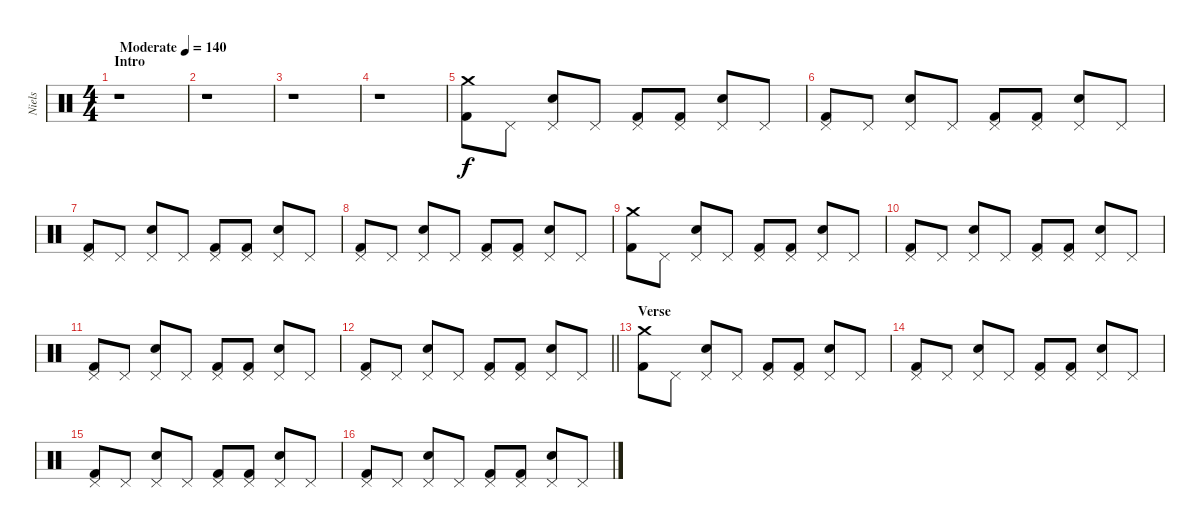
\track ("Niels" "Niels") {instrument percussion}
\staff {score}
\articulation defaults
\ts (4 4)
\section ("" "Intro")
\tempo (140 "Moderate")
\clef neutral
\ks c
r.1{dy f} |
r.1 |
r.1 |
r.1 |
("Crash medium (hit)" "Kick (hit) 2").8 "Pedal Hi-Hat (hit)".8 ("Pedal Hi-Hat (hit)" "Snare (hit) 2").8 "Pedal Hi-Hat (hit)".8 ("Pedal Hi-Hat (hit)" "Kick (hit) 2").8 ("Pedal Hi-Hat (hit)" "Kick (hit) 2").8 ("Pedal Hi-Hat (hit)" "Snare (hit) 2").8 "Pedal Hi-Hat (hit)".8 |
("Pedal Hi-Hat (hit)" "Kick (hit) 2").8 "Pedal Hi-Hat (hit)".8 ("Pedal Hi-Hat (hit)" "Snare (hit) 2").8 "Pedal Hi-Hat (hit)".8 ("Pedal Hi-Hat (hit)" "Kick (hit) 2").8 ("Pedal Hi-Hat (hit)" "Kick (hit) 2").8 ("Pedal Hi-Hat (hit)" "Snare (hit) 2").8 "Pedal Hi-Hat (hit)".8 |
("Pedal Hi-Hat (hit)" "Kick (hit) 2").8 "Pedal Hi-Hat (hit)".8 ("Pedal Hi-Hat (hit)" "Snare (hit) 2").8 "Pedal Hi-Hat (hit)".8 ("Pedal Hi-Hat (hit)" "Kick (hit) 2").8 ("Pedal Hi-Hat (hit)" "Kick (hit) 2").8 ("Pedal Hi-Hat (hit)" "Snare (hit) 2").8 "Pedal Hi-Hat (hit)".8 |
("Pedal Hi-Hat (hit)" "Kick (hit) 2").8 "Pedal Hi-Hat (hit)".8 ("Pedal Hi-Hat (hit)" "Snare (hit) 2").8 "Pedal Hi-Hat (hit)".8 ("Pedal Hi-Hat (hit)" "Kick (hit) 2").8 ("Pedal Hi-Hat (hit)" "Kick (hit) 2").8 ("Pedal Hi-Hat (hit)" "Snare (hit) 2").8 "Pedal Hi-Hat (hit)".8 |
("Crash medium (hit)" "Kick (hit) 2").8 "Pedal Hi-Hat (hit)".8 ("Pedal Hi-Hat (hit)" "Snare (hit) 2").8 "Pedal Hi-Hat (hit)".8 ("Pedal Hi-Hat (hit)" "Kick (hit) 2").8 ("Pedal Hi-Hat (hit)" "Kick (hit) 2").8 ("Pedal Hi-Hat (hit)" "Snare (hit) 2").8 "Pedal Hi-Hat (hit)".8 |
("Pedal Hi-Hat (hit)" "Kick (hit) 2").8 "Pedal Hi-Hat (hit)".8 ("Pedal Hi-Hat (hit)" "Snare (hit) 2").8 "Pedal Hi-Hat (hit)".8 ("Pedal Hi-Hat (hit)" "Kick (hit) 2").8 ("Pedal Hi-Hat (hit)" "Kick (hit) 2").8 ("Pedal Hi-Hat (hit)" "Snare (hit) 2").8 "Pedal Hi-Hat (hit)".8 |
("Pedal Hi-Hat (hit)" "Kick (hit) 2").8 "Pedal Hi-Hat (hit)".8 ("Pedal Hi-Hat (hit)" "Snare (hit) 2").8 "Pedal Hi-Hat (hit)".8 ("Pedal Hi-Hat (hit)" "Kick (hit) 2").8 ("Pedal Hi-Hat (hit)" "Kick (hit) 2").8 ("Pedal Hi-Hat (hit)" "Snare (hit) 2").8 "Pedal Hi-Hat (hit)".8 |
\barLineRight lightlight
("Pedal Hi-Hat (hit)" "Kick (hit) 2").8 "Pedal Hi-Hat (hit)".8 ("Pedal Hi-Hat (hit)" "Snare (hit) 2").8 "Pedal Hi-Hat (hit)".8 ("Pedal Hi-Hat (hit)" "Kick (hit) 2").8 ("Pedal Hi-Hat (hit)" "Kick (hit) 2").8 ("Pedal Hi-Hat (hit)" "Snare (hit) 2").8 "Pedal Hi-Hat (hit)".8 |
\section ("" "Verse")
("Crash medium (hit)" "Kick (hit) 2").8 "Pedal Hi-Hat (hit)".8 ("Pedal Hi-Hat (hit)" "Snare (hit) 2").8 "Pedal Hi-Hat (hit)".8 ("Pedal Hi-Hat (hit)" "Kick (hit) 2").8 ("Pedal Hi-Hat (hit)" "Kick (hit) 2").8 ("Pedal Hi-Hat (hit)" "Snare (hit) 2").8 "Pedal Hi-Hat (hit)".8 |
("Pedal Hi-Hat (hit)" "Kick (hit) 2").8 "Pedal Hi-Hat (hit)".8 ("Pedal Hi-Hat (hit)" "Snare (hit) 2").8 "Pedal Hi-Hat (hit)".8 ("Pedal Hi-Hat (hit)" "Kick (hit) 2").8 ("Pedal Hi-Hat (hit)" "Kick (hit) 2").8 ("Pedal Hi-Hat (hit)" "Snare (hit) 2").8 "Pedal Hi-Hat (hit)".8 |
("Pedal Hi-Hat (hit)" "Kick (hit) 2").8 "Pedal Hi-Hat (hit)".8 ("Pedal Hi-Hat (hit)" "Snare (hit) 2").8 "Pedal Hi-Hat (hit)".8 ("Pedal Hi-Hat (hit)" "Kick (hit) 2").8 ("Pedal Hi-Hat (hit)" "Kick (hit) 2").8 ("Pedal Hi-Hat (hit)" "Snare (hit) 2").8 "Pedal Hi-Hat (hit)".8 |
("Pedal Hi-Hat (hit)" "Kick (hit) 2").8 "Pedal Hi-Hat (hit)".8 ("Pedal Hi-Hat (hit)" "Snare (hit) 2").8 "Pedal Hi-Hat (hit)".8 ("Pedal Hi-Hat (hit)" "Kick (hit) 2").8 ("Pedal Hi-Hat (hit)" "Kick (hit) 2").8 ("Pedal Hi-Hat (hit)" "Snare (hit) 2").8 "Pedal Hi-Hat (hit)".8
